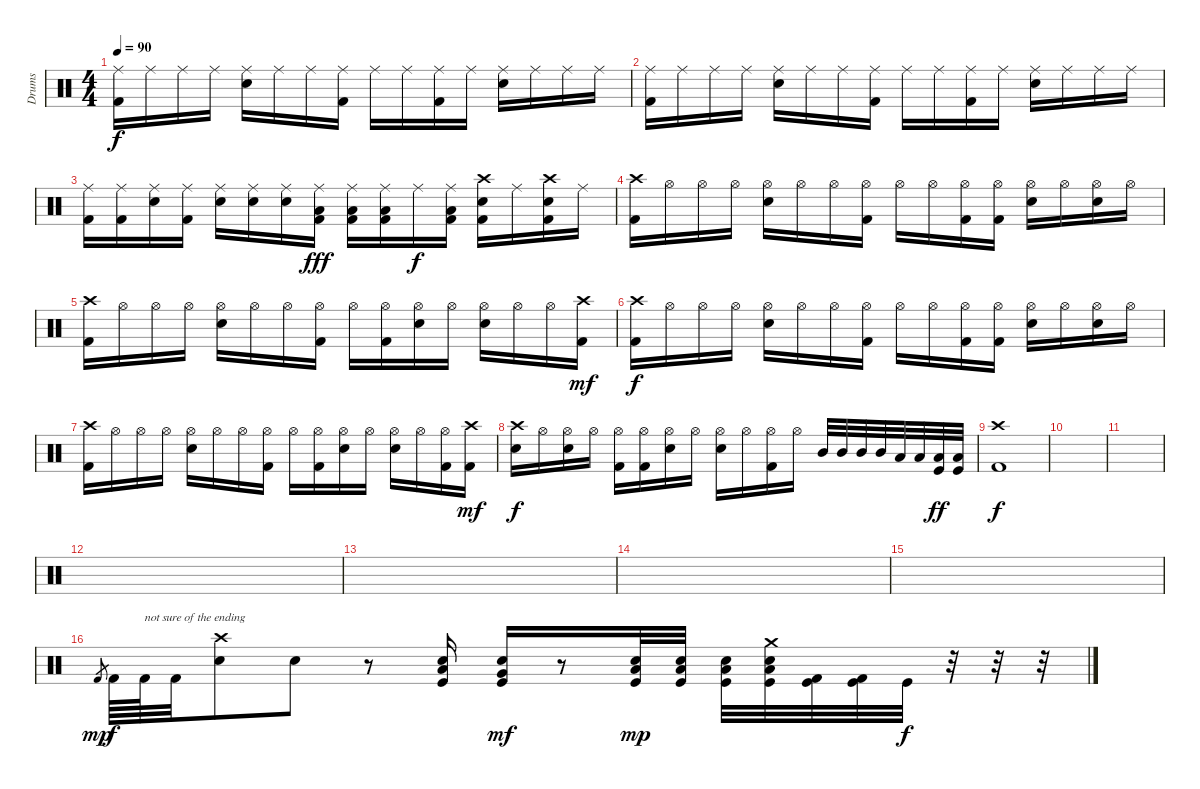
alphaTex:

\track ("Drums" "Drums") {instrument percussion}
\staff {score}
\articulation defaults
\ts (4 4)
\tempo 90
\clef neutral
\ks c
("Ride (middle)" "Kick (hit) 2").16{dy f} "Ride (middle)".16 "Ride (middle)".16 "Ride (middle)".16 ("Ride (middle)" "Electric Snare (hit)").16 "Ride (middle)".16 "Ride (middle)".16 ("Ride (middle)" "Kick (hit) 2").16 "Ride (middle)".16 "Ride (middle)".16 ("Ride (middle)" "Kick (hit) 2").16 "Ride (middle)".16 ("Ride (middle)" "Electric Snare (hit)").16 "Ride (middle)".16 "Ride (middle)".16 "Ride (middle)".16 |
("Ride (middle)" "Kick (hit) 2").16 "Ride (middle)".16 "Ride (middle)".16 "Ride (middle)".16 ("Ride (middle)" "Electric Snare (hit)").16 "Ride (middle)".16 "Ride (middle)".16 ("Ride (middle)" "Kick (hit) 2").16 "Ride (middle)".16 "Ride (middle)".16 ("Ride (middle)" "Kick (hit) 2").16 "Ride (middle)".16 ("Ride (middle)" "Electric Snare (hit)").16 "Ride (middle)".16 "Ride (middle)".16 "Ride (middle)".16 |
("Ride (middle)" "Kick (hit) 2").16 ("Ride (middle)" "Kick (hit) 2").16 ("Ride (middle)" "Electric Snare (hit)").16 ("Ride (middle)" "Kick (hit) 2").16 ("Ride (middle)" "Electric Snare (hit)").16 ("Ride (middle)" "Electric Snare (hit)").16 ("Ride (middle)" "Electric Snare (hit)").16 ("Ride (middle)" "Low Tom (hit)" "Kick (hit) 2").16{dy fff} ("Ride (middle)" "Low Tom (hit)" "Kick (hit) 2").16 ("Ride (middle)" "Low Tom (hit)" "Kick (hit) 2").16 "Ride (middle)".16{dy f} ("Ride (middle)" "Low Tom (hit)" "Kick (hit) 2").16 ("Crash high (hit)" "Kick (hit) 2" "Electric Snare (hit)").16 "Ride (middle)".16 ("Crash high (hit)" "Kick (hit) 2" "Electric Snare (hit)").16 "Ride (middle)".16 |
("Crash high (hit)" "Kick (hit) 2").16 "Hi-Hat (open)".16 "Hi-Hat (open)".16 "Hi-Hat (open)".16 ("Hi-Hat (open)" "Electric Snare (hit)").16 "Hi-Hat (open)".16 "Hi-Hat (open)".16 ("Hi-Hat (open)" "Kick (hit) 2").16 "Hi-Hat (open)".16 "Hi-Hat (open)".16 ("Hi-Hat (open)" "Kick (hit) 2").16 ("Hi-Hat (open)" "Kick (hit) 2").16 ("Hi-Hat (open)" "Electric Snare (hit)").16 "Hi-Hat (open)".16 ("Hi-Hat (open)" "Electric Snare (hit)").16 "Hi-Hat (open)".16 |
("Crash high (hit)" "Kick (hit) 2").16 "Hi-Hat (open)".16 "Hi-Hat (open)".16 "Hi-Hat (open)".16 ("Hi-Hat (open)" "Electric Snare (hit)").16 "Hi-Hat (open)".16 "Hi-Hat (open)".16 ("Hi-Hat (open)" "Kick (hit) 2").16 "Hi-Hat (open)".16 ("Hi-Hat (open)" "Kick (hit) 2").16 ("Hi-Hat (open)" "Electric Snare (hit)").16 "Hi-Hat (open)".16 ("Hi-Hat (open)" "Electric Snare (hit)").16 "Hi-Hat (open)".16 "Hi-Hat (open)".16 ("Crash high (hit)" "Kick (hit) 2").16{dy mf} |
("Crash high (hit)" "Kick (hit) 2").16{dy f} "Hi-Hat (open)".16 "Hi-Hat (open)".16 "Hi-Hat (open)".16 ("Hi-Hat (open)" "Electric Snare (hit)").16 "Hi-Hat (open)".16 "Hi-Hat (open)".16 ("Hi-Hat (open)" "Kick (hit) 2").16 "Hi-Hat (open)".16 "Hi-Hat (open)".16 ("Hi-Hat (open)" "Kick (hit) 2").16 ("Hi-Hat (open)" "Kick (hit) 2").16 ("Hi-Hat (open)" "Electric Snare (hit)").16 "Hi-Hat (open)".16 ("Hi-Hat (open)" "Electric Snare (hit)").16 "Hi-Hat (open)".16 |
("Crash high (hit)" "Kick (hit) 2").16 "Hi-Hat (open)".16 "Hi-Hat (open)".16 "Hi-Hat (open)".16 ("Hi-Hat (open)" "Electric Snare (hit)").16 "Hi-Hat (open)".16 "Hi-Hat (open)".16 ("Hi-Hat (open)" "Kick (hit) 2").16 "Hi-Hat (open)".16 ("Hi-Hat (open)" "Kick (hit) 2").16 ("Hi-Hat (open)" "Electric Snare (hit)").16 "Hi-Hat (open)".16 ("Hi-Hat (open)" "Electric Snare (hit)").16 "Hi-Hat (open)".16 ("Hi-Hat (open)" "Kick (hit) 2").16 ("Crash high (hit)" "Kick (hit) 2").16{dy mf} |
("Crash high (hit)" "Electric Snare (hit)").16{dy f} "Hi-Hat (open)".16 ("Hi-Hat (open)" "Electric Snare (hit)").16 "Hi-Hat (open)".16 ("Hi-Hat (open)" "Kick (hit) 2").16 ("Hi-Hat (open)" "Kick (hit) 2").16 ("Hi-Hat (open)" "Electric Snare (hit)").16 "Hi-Hat (open)".16 ("Hi-Hat (open)" "Electric Snare (hit)").16 "Hi-Hat (open)".16 ("Hi-Hat (open)" "Kick (hit) 2").16 "Hi-Hat (open)".16 "Mid Tom (hit)".32 "Mid Tom (hit)".32 "Mid Tom (hit)".32 "Mid Tom (hit)".32 "Low Tom (hit)".32 "Low Tom (hit)".32 ("Low Floor Tom (hit)" "Kick (hit)").32{dy ff} ("Low Floor Tom (hit)" "Kick (hit)").32 |
("Crash high (hit)" "Kick (hit) 2").1{dy f} |
|
|
|
|
|
|
"Kick (hit) 2".8{gr dy mp} "Kick (hit) 2".64{dy f} "Kick (hit) 2".64{txt "not sure of the ending"} "Kick (hit) 2".32 ("Crash high (hit)" "Electric Snare (hit)").8 "Electric Snare (hit)".8 r.8 ("Low Tom (hit)" "Electric Snare (hit)" "Kick (hit)").16 ("Very Low Tom (hit)" "Electric Snare (hit)" "Kick (hit)").16{dy mf} r.8 ("Low Tom (hit)" "Electric Snare (hit)" "Kick (hit)").32{dy mp} ("Low Tom (hit)" "Electric Snare (hit)" "Kick (hit)").32 ("Low Tom (hit)" "Electric Snare (hit)" "Kick (hit)").32 ("Low Tom (hit)" "Electric Snare (hit)" "Kick (hit)" "Crash medium (hit)").32 ("Kick (hit) 2" "Kick (hit)").32 ("Kick (hit) 2" "Kick (hit)").32 "Kick (hit)".32{dy f} r.32 r.32 r.32
